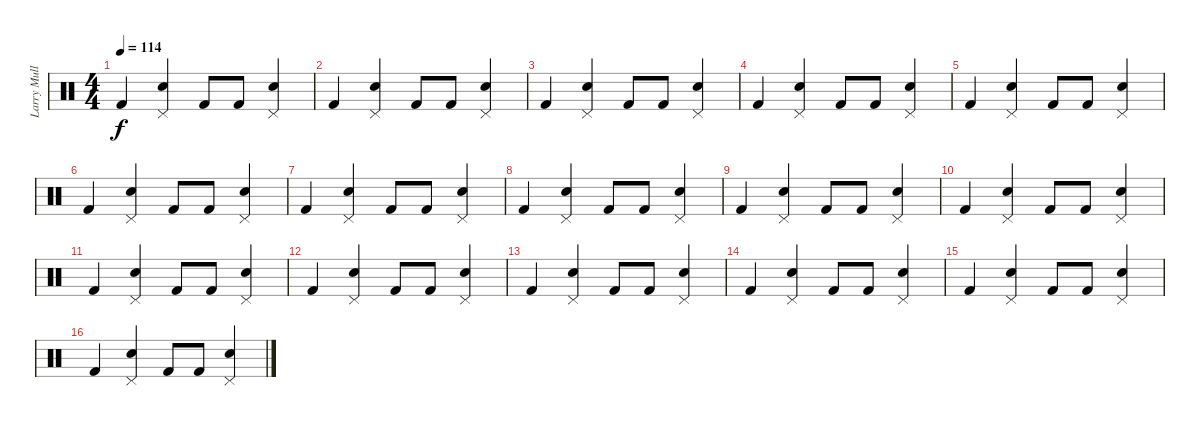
\track ("Larry Mullen Jr Drums" "Larry Mull") {instrument percussion}
\staff {score}
\articulation defaults
\ts (4 4)
\tempo 114
\clef neutral
\ks c "Kick (hit) 2".4{dy f}
("Snare (hit) 2" "Pedal Hi-Hat (hit)").4 "Kick (hit) 2".8 "Kick (hit) 2".8 ("Snare (hit) 2" "Pedal Hi-Hat (hit)").4 |
"Kick (hit) 2".4 ("Snare (hit) 2" "Pedal Hi-Hat (hit)").4 "Kick (hit) 2".8 "Kick (hit) 2".8 ("Snare (hit) 2" "Pedal Hi-Hat (hit)").4 |
"Kick (hit) 2".4 ("Snare (hit) 2" "Pedal Hi-Hat (hit)").4 "Kick (hit) 2".8 "Kick (hit) 2".8 ("Snare (hit) 2" "Pedal Hi-Hat (hit)").4 |
"Kick (hit) 2".4 ("Snare (hit) 2" "Pedal Hi-Hat (hit)").4 "Kick (hit) 2".8 "Kick (hit) 2".8 ("Snare (hit) 2" "Pedal Hi-Hat (hit)").4 |
"Kick (hit) 2".4 ("Snare (hit) 2" "Pedal Hi-Hat (hit)").4 "Kick (hit) 2".8 "Kick (hit) 2".8 ("Snare (hit) 2" "Pedal Hi-Hat (hit)").4 |
"Kick (hit) 2".4 ("Snare (hit) 2" "Pedal Hi-Hat (hit)").4 "Kick (hit) 2".8 "Kick (hit) 2".8 ("Snare (hit) 2" "Pedal Hi-Hat (hit)").4 |
"Kick (hit) 2".4 ("Snare (hit) 2" "Pedal Hi-Hat (hit)").4 "Kick (hit) 2".8 "Kick (hit) 2".8 ("Snare (hit) 2" "Pedal Hi-Hat (hit)").4 |
"Kick (hit) 2".4 ("Snare (hit) 2" "Pedal Hi-Hat (hit)").4 "Kick (hit) 2".8 "Kick (hit) 2".8 ("Snare (hit) 2" "Pedal Hi-Hat (hit)").4 |
"Kick (hit) 2".4 ("Snare (hit) 2" "Pedal Hi-Hat (hit)").4 "Kick (hit) 2".8 "Kick (hit) 2".8 ("Snare (hit) 2" "Pedal Hi-Hat (hit)").4 |
"Kick (hit) 2".4 ("Snare (hit) 2" "Pedal Hi-Hat (hit)").4 "Kick (hit) 2".8 "Kick (hit) 2".8 ("Snare (hit) 2" "Pedal Hi-Hat (hit)").4 |
"Kick (hit) 2".4 ("Snare (hit) 2" "Pedal Hi-Hat (hit)").4 "Kick (hit) 2".8 "Kick (hit) 2".8 ("Snare (hit) 2" "Pedal Hi-Hat (hit)").4 |
"Kick (hit) 2".4 ("Snare (hit) 2" "Pedal Hi-Hat (hit)").4 "Kick (hit) 2".8 "Kick (hit) 2".8 ("Snare (hit) 2" "Pedal Hi-Hat (hit)").4 |
"Kick (hit) 2".4 ("Snare (hit) 2" "Pedal Hi-Hat (hit)").4 "Kick (hit) 2".8 "Kick (hit) 2".8 ("Snare (hit) 2" "Pedal Hi-Hat (hit)").4 |
"Kick (hit) 2".4 ("Snare (hit) 2" "Pedal Hi-Hat (hit)").4 "Kick (hit) 2".8 "Kick (hit) 2".8 ("Snare (hit) 2" "Pedal Hi-Hat (hit)").4 |
"Kick (hit) 2".4 ("Snare (hit) 2" "Pedal Hi-Hat (hit)").4 "Kick (hit) 2".8 "Kick (hit) 2".8 ("Snare (hit) 2" "Pedal Hi-Hat (hit)").4 |
"Kick (hit) 2".4 ("Snare (hit) 2" "Pedal Hi-Hat (hit)").4 "Kick (hit) 2".8 "Kick (hit) 2".8 ("Snare (hit) 2" "Pedal Hi-Hat (hit)").4
